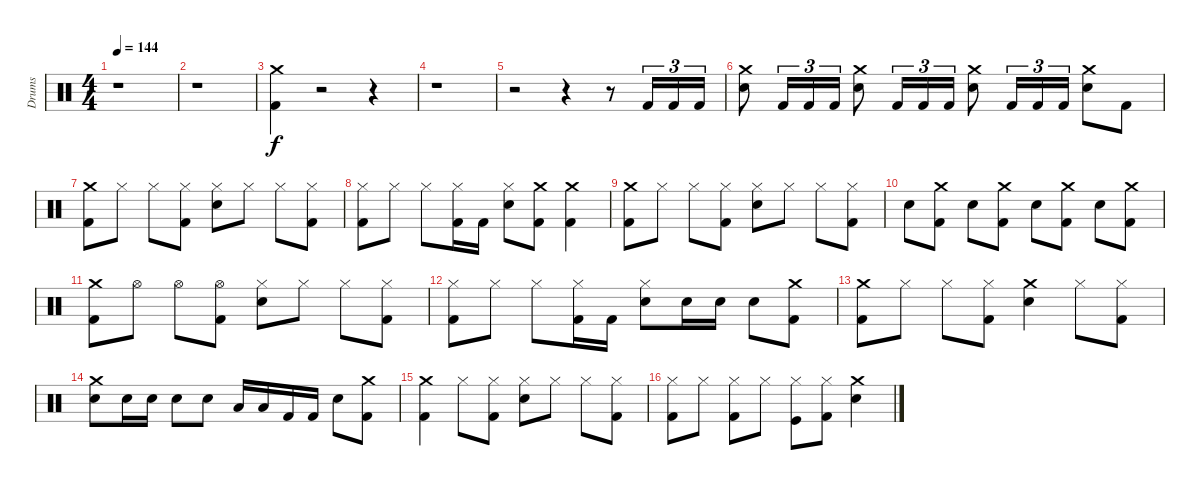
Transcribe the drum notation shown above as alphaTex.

\track ("Drums" "Drums") {instrument percussion}
\staff {score}
\articulation defaults
\ts (4 4)
\tempo 144
\clef neutral
\ks c
r.1{dy f} |
r.1 |
("Kick (hit) 2" "Crash medium (hit)").4 r.2 r.4 |
r.1 |
r.2 r.4 r.8 "Kick (hit) 2".16{tu (3 2)} "Kick (hit) 2".16{tu (3 2)} "Kick (hit) 2".16{tu (3 2)} |
("Snare (hit) 2" "Crash medium (hit)").8 "Kick (hit) 2".16{tu (3 2)} "Kick (hit) 2".16{tu (3 2)} "Kick (hit) 2".16{tu (3 2)} ("Snare (hit) 2" "Crash medium (hit)").8 "Kick (hit) 2".16{tu (3 2)} "Kick (hit) 2".16{tu (3 2)} "Kick (hit) 2".16{tu (3 2)} ("Snare (hit) 2" "Crash medium (hit)").8 "Kick (hit) 2".16{tu (3 2)} "Kick (hit) 2".16{tu (3 2)} "Kick (hit) 2".16{tu (3 2)} ("Snare (hit) 2" "Crash medium (hit)").8 "Kick (hit) 2".8 |
("Kick (hit) 2" "Crash medium (hit)").8 "Hi-Hat (closed)".8 "Hi-Hat (closed)".8 ("Kick (hit) 2" "Hi-Hat (closed)").8 ("Snare (hit) 2" "Hi-Hat (closed)").8 "Hi-Hat (closed)".8 "Hi-Hat (closed)".8 ("Kick (hit) 2" "Hi-Hat (closed)").8 |
("Hi-Hat (closed)" "Kick (hit) 2").8 "Hi-Hat (closed)".8 "Hi-Hat (closed)".8 ("Hi-Hat (closed)" "Kick (hit) 2").16 "Kick (hit) 2".16 ("Snare (hit) 2" "Hi-Hat (closed)").8 ("Kick (hit) 2" "Crash medium (hit)").8 ("Kick (hit) 2" "Crash medium (hit)").4 |
("Crash medium (hit)" "Kick (hit) 2").8 "Hi-Hat (closed)".8 "Hi-Hat (closed)".8 ("Kick (hit) 2" "Hi-Hat (closed)").8 ("Snare (hit) 2" "Hi-Hat (closed)").8 "Hi-Hat (closed)".8 "Hi-Hat (closed)".8 ("Kick (hit) 2" "Hi-Hat (closed)").8 |
"Snare (hit) 2".8 ("Kick (hit) 2" "Crash medium (hit)").8 "Snare (hit) 2".8 ("Kick (hit) 2" "Crash medium (hit)").8 "Snare (hit) 2".8 ("Kick (hit) 2" "Crash medium (hit)").8 "Snare (hit) 2".8 ("Kick (hit) 2" "Crash medium (hit)").8 |
("Kick (hit) 2" "Crash medium (hit)").8 "Hi-Hat (open)".8 "Hi-Hat (open)".8 ("Kick (hit) 2" "Hi-Hat (open)").8 ("Snare (hit) 2" "Hi-Hat (closed)").8 "Hi-Hat (closed)".8 "Hi-Hat (closed)".8 ("Kick (hit) 2" "Hi-Hat (closed)").8 |
("Hi-Hat (closed)" "Kick (hit) 2").8 "Hi-Hat (closed)".8 "Hi-Hat (closed)".8 ("Kick (hit) 2" "Hi-Hat (closed)").16 "Kick (hit) 2".16 ("Snare (hit) 2" "Hi-Hat (closed)").8 "Snare (hit) 2".16 "Snare (hit) 2".16 "Snare (hit) 2".8 ("Kick (hit) 2" "Crash medium (hit)").8 |
("Crash medium (hit)" "Kick (hit) 2").8 "Hi-Hat (closed)".8 "Hi-Hat (closed)".8 ("Kick (hit) 2" "Hi-Hat (closed)").8 ("Snare (hit) 2" "Crash medium (hit)").4 "Hi-Hat (closed)".8 ("Kick (hit) 2" "Hi-Hat (closed)").8 |
("Snare (hit) 2" "Crash medium (hit)").8 "Snare (hit) 2".16 "Snare (hit) 2".16 "Snare (hit) 2".8 "Snare (hit) 2".8 "Low Tom (hit)".16 "Low Tom (hit)".16 "Kick (hit) 2".16 "Kick (hit) 2".16 "Snare (hit) 2".8 ("Kick (hit) 2" "Crash medium (hit)").8 |
("Kick (hit) 2" "Crash medium (hit)").4 "Hi-Hat (closed)".8 ("Kick (hit) 2" "Hi-Hat (closed)").8 ("Snare (hit) 2" "Hi-Hat (closed)").8 "Hi-Hat (closed)".8 "Hi-Hat (closed)".8 ("Kick (hit) 2" "Hi-Hat (closed)").8 |
("Hi-Hat (closed)" "Kick (hit) 2").8 "Hi-Hat (closed)".8 ("Hi-Hat (closed)" "Kick (hit) 2").8 "Hi-Hat (closed)".8 ("Kick (hit)" "Hi-Hat (closed)").8 ("Kick (hit) 2" "Hi-Hat (closed)").8 ("Crash medium (hit)" "Snare (hit) 2").4
